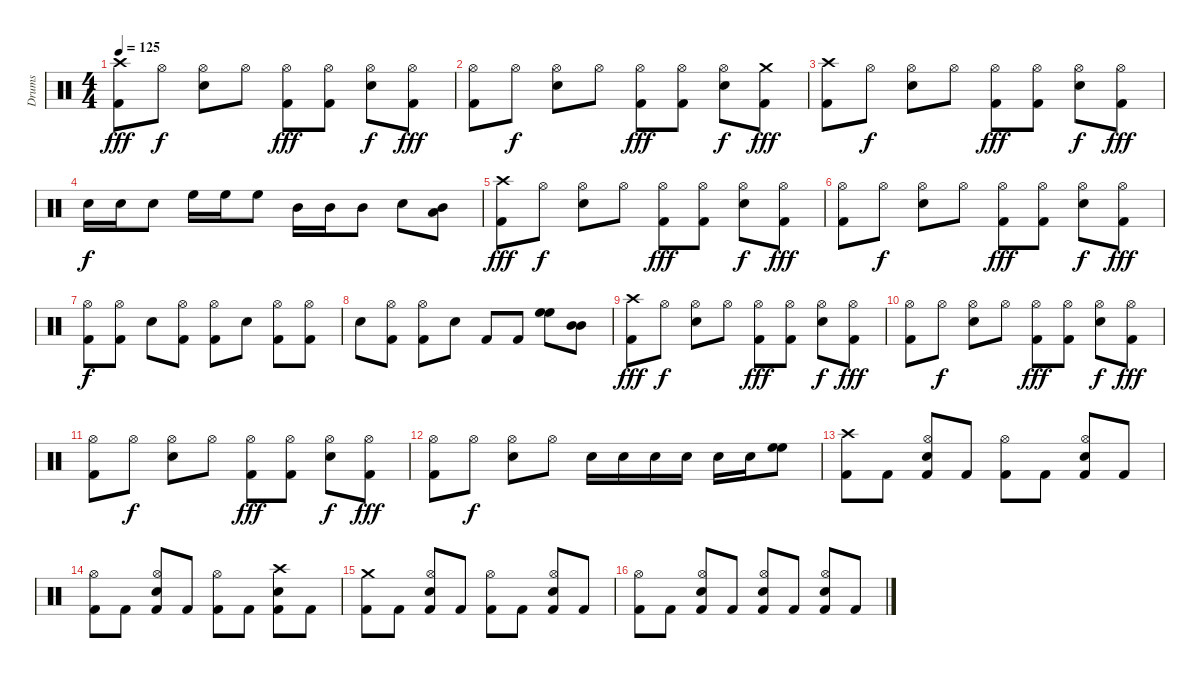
\track ("Drums" "Drums") {instrument percussion}
\staff {score}
\articulation defaults
\ts (4 4)
\tempo 125
\clef neutral
\ks c
("Crash high (hit)" "Kick (hit) 2").8{dy fff} "Hi-Hat (open)".8{dy f} ("Hi-Hat (open)" "Snare (hit) 2").8 "Hi-Hat (open)".8 ("Hi-Hat (open)" "Kick (hit) 2").8{dy fff} ("Hi-Hat (open)" "Kick (hit) 2").8 ("Hi-Hat (open)" "Snare (hit) 2").8{dy f} ("Hi-Hat (open)" "Kick (hit) 2").8{dy fff} |
("Hi-Hat (open)" "Kick (hit) 2").8 "Hi-Hat (open)".8{dy f} ("Hi-Hat (open)" "Snare (hit) 2").8 "Hi-Hat (open)".8 ("Hi-Hat (open)" "Kick (hit) 2").8{dy fff} ("Hi-Hat (open)" "Kick (hit) 2").8 ("Hi-Hat (open)" "Snare (hit) 2").8{dy f} ("Crash medium (hit)" "Kick (hit) 2").8{dy fff} |
("Crash high (hit)" "Kick (hit) 2").8 "Hi-Hat (open)".8{dy f} ("Hi-Hat (open)" "Snare (hit) 2").8 "Hi-Hat (open)".8 ("Hi-Hat (open)" "Kick (hit) 2").8{dy fff} ("Hi-Hat (open)" "Kick (hit) 2").8 ("Hi-Hat (open)" "Snare (hit) 2").8{dy f} ("Hi-Hat (open)" "Kick (hit) 2").8{dy fff} |
"Snare (hit) 2".16{dy f} "Snare (hit) 2".16 "Snare (hit) 2".8 "High Floor Tom (hit)".16 "High Floor Tom (hit)".16 "High Floor Tom (hit)".8 "Mid Tom (hit)".16 "Mid Tom (hit)".16 "Mid Tom (hit)".8 "Snare (hit) 2".8 ("Low Tom (hit)" "Mid Tom (hit)").8 |
("Crash high (hit)" "Kick (hit) 2").8{dy fff} "Hi-Hat (open)".8{dy f} ("Hi-Hat (open)" "Snare (hit) 2").8 "Hi-Hat (open)".8 ("Hi-Hat (open)" "Kick (hit) 2").8{dy fff} ("Hi-Hat (open)" "Kick (hit) 2").8 ("Hi-Hat (open)" "Snare (hit) 2").8{dy f} ("Hi-Hat (open)" "Kick (hit) 2").8{dy fff} |
("Hi-Hat (open)" "Kick (hit) 2").8 "Hi-Hat (open)".8{dy f} ("Hi-Hat (open)" "Snare (hit) 2").8 "Hi-Hat (open)".8 ("Hi-Hat (open)" "Kick (hit) 2").8{dy fff} ("Hi-Hat (open)" "Kick (hit) 2").8 ("Hi-Hat (open)" "Snare (hit) 2").8{dy f} ("Hi-Hat (open)" "Kick (hit) 2").8{dy fff} |
("Hi-Hat (open)" "Kick (hit) 2").8{dy f} ("Hi-Hat (open)" "Kick (hit) 2").8 "Snare (hit) 2".8 ("Hi-Hat (open)" "Kick (hit) 2").8 ("Hi-Hat (open)" "Kick (hit) 2").8 "Snare (hit) 2".8 ("Hi-Hat (open)" "Kick (hit) 2").8 ("Hi-Hat (open)" "Kick (hit) 2").8 |
"Snare (hit) 2".8 ("Hi-Hat (open)" "Kick (hit) 2").8 ("Hi-Hat (open)" "Kick (hit) 2").8 "Snare (hit) 2".8 "Kick (hit) 2".8 "Kick (hit) 2".8 ("High Floor Tom (hit)" "High Floor Tom (hit)").8 ("Mid Tom (hit)" "Mid Tom (hit)").8 |
("Crash high (hit)" "Kick (hit) 2").8{dy fff} "Hi-Hat (open)".8{dy f} ("Hi-Hat (open)" "Snare (hit) 2").8 "Hi-Hat (open)".8 ("Hi-Hat (open)" "Kick (hit) 2").8{dy fff} ("Hi-Hat (open)" "Kick (hit) 2").8 ("Hi-Hat (open)" "Snare (hit) 2").8{dy f} ("Hi-Hat (open)" "Kick (hit) 2").8{dy fff} |
("Hi-Hat (open)" "Kick (hit) 2").8 "Hi-Hat (open)".8{dy f} ("Hi-Hat (open)" "Snare (hit) 2").8 "Hi-Hat (open)".8 ("Hi-Hat (open)" "Kick (hit) 2").8{dy fff} ("Hi-Hat (open)" "Kick (hit) 2").8 ("Hi-Hat (open)" "Snare (hit) 2").8{dy f} ("Hi-Hat (open)" "Kick (hit) 2").8{dy fff} |
("Hi-Hat (open)" "Kick (hit) 2").8 "Hi-Hat (open)".8{dy f} ("Hi-Hat (open)" "Snare (hit) 2").8 "Hi-Hat (open)".8 ("Hi-Hat (open)" "Kick (hit) 2").8{dy fff} ("Hi-Hat (open)" "Kick (hit) 2").8 ("Hi-Hat (open)" "Snare (hit) 2").8{dy f} ("Hi-Hat (open)" "Kick (hit) 2").8{dy fff} |
("Hi-Hat (open)" "Kick (hit) 2").8 "Hi-Hat (open)".8{dy f} ("Hi-Hat (open)" "Snare (hit) 2").8 "Hi-Hat (open)".8 "Snare (hit) 2".16 "Snare (hit) 2".16 "Snare (hit) 2".16 "Snare (hit) 2".16 "Snare (hit) 2".16 "Snare (hit) 2".16 ("High Floor Tom (hit)" "High Floor Tom (hit)").8 |
("Crash high (hit)" "Kick (hit) 2").8 "Kick (hit) 2".8 ("Hi-Hat (open)" "Snare (hit) 2" "Kick (hit) 2").8 "Kick (hit) 2".8 ("Hi-Hat (open)" "Kick (hit) 2").8 "Kick (hit) 2".8 ("Hi-Hat (open)" "Snare (hit) 2" "Kick (hit) 2").8 "Kick (hit) 2".8 |
("Hi-Hat (open)" "Kick (hit) 2").8 "Kick (hit) 2".8 ("Hi-Hat (open)" "Snare (hit) 2" "Kick (hit) 2").8 "Kick (hit) 2".8 ("Hi-Hat (open)" "Kick (hit) 2").8 "Kick (hit) 2".8 ("Crash high (hit)" "Snare (hit) 2" "Kick (hit) 2").8 "Kick (hit) 2".8 |
("Crash medium (hit)" "Kick (hit) 2").8 "Kick (hit) 2".8 ("Hi-Hat (open)" "Snare (hit) 2" "Kick (hit) 2").8 "Kick (hit) 2".8 ("Hi-Hat (open)" "Kick (hit) 2").8 "Kick (hit) 2".8 ("Hi-Hat (open)" "Snare (hit) 2" "Kick (hit) 2").8 "Kick (hit) 2".8 |
("Hi-Hat (open)" "Kick (hit) 2").8 "Kick (hit) 2".8 ("Hi-Hat (open)" "Snare (hit) 2" "Kick (hit) 2").8 "Kick (hit) 2".8 ("Hi-Hat (open)" "Snare (hit) 2" "Kick (hit) 2").8 "Kick (hit) 2".8 ("Hi-Hat (open)" "Snare (hit) 2" "Kick (hit) 2").8 "Kick (hit) 2".8
